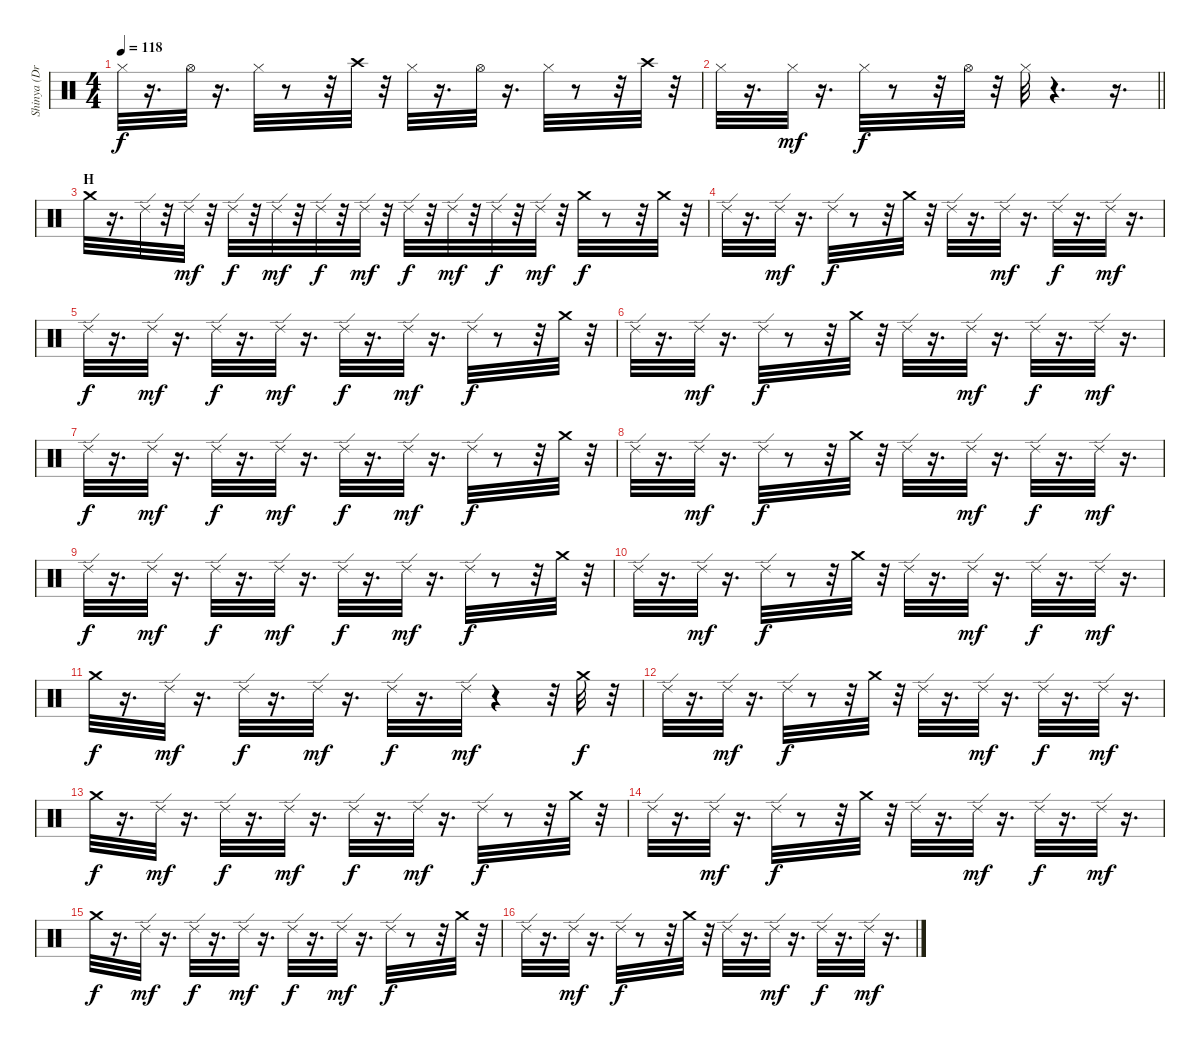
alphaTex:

\track ("Shinya (Drums)" "Shinya (Dr") {instrument percussion}
\staff {score}
\articulation defaults
\ts (4 4)
\tempo 118
\clef neutral
\ks c "Hi-Hat (closed)".32{dy f}
r.16{d} "Hi-Hat (open)".32 r.16{d} "Hi-Hat (closed)".32 r.8 r.32 "Crash high (hit)".32 r.32 "Hi-Hat (closed)".32 r.16{d} "Hi-Hat (open)".32 r.16{d} "Hi-Hat (closed)".32 r.8 r.32 "Crash high (hit)".32 r.32 |
\barLineRight lightlight "Hi-Hat (closed)".32
r.16{d} "Hi-Hat (closed)".32{dy mf} r.16{d} "Hi-Hat (closed)".32{dy f} r.8 r.32 "Hi-Hat (open)".32 r.32 "Hi-Hat (closed)".32 r.4{d} r.16{d} |
\section ("" "H")
"Crash medium (hit)".32 r.16{d} "Ride (edge) 2".32 r.32 "Ride (edge) 2".32{dy mf} r.32 "Ride (edge) 2".32{dy f} r.32 "Ride (edge) 2".32{dy mf} r.32 "Ride (edge) 2".32{dy f} r.32 "Ride (edge) 2".32{dy mf} r.32 "Ride (edge) 2".32{dy f} r.32 "Ride (edge) 2".32{dy mf} r.32 "Ride (edge) 2".32{dy f} r.32 "Ride (edge) 2".32{dy mf} r.32 "Crash medium (hit)".32{dy f} r.8 r.32 "Crash medium (hit)".32 r.32 |
"Ride (edge) 2".32 r.16{d} "Ride (edge) 2".32{dy mf} r.16{d} "Ride (edge) 2".32{dy f} r.8 r.32 "Crash medium (hit)".32 r.32 "Ride (edge) 2".32 r.16{d} "Ride (edge) 2".32{dy mf} r.16{d} "Ride (edge) 2".32{dy f} r.16{d} "Ride (edge) 2".32{dy mf} r.16{d} |
"Ride (edge) 2".32{dy f} r.16{d} "Ride (edge) 2".32{dy mf} r.16{d} "Ride (edge) 2".32{dy f} r.16{d} "Ride (edge) 2".32{dy mf} r.16{d} "Ride (edge) 2".32{dy f} r.16{d} "Ride (edge) 2".32{dy mf} r.16{d} "Ride (edge) 2".32{dy f} r.8 r.32 "Crash medium (hit)".32 r.32 |
"Ride (edge) 2".32 r.16{d} "Ride (edge) 2".32{dy mf} r.16{d} "Ride (edge) 2".32{dy f} r.8 r.32 "Crash medium (hit)".32 r.32 "Ride (edge) 2".32 r.16{d} "Ride (edge) 2".32{dy mf} r.16{d} "Ride (edge) 2".32{dy f} r.16{d} "Ride (edge) 2".32{dy mf} r.16{d} |
"Ride (edge) 2".32{dy f} r.16{d} "Ride (edge) 2".32{dy mf} r.16{d} "Ride (edge) 2".32{dy f} r.16{d} "Ride (edge) 2".32{dy mf} r.16{d} "Ride (edge) 2".32{dy f} r.16{d} "Ride (edge) 2".32{dy mf} r.16{d} "Ride (edge) 2".32{dy f} r.8 r.32 "Crash medium (hit)".32 r.32 |
"Ride (edge) 2".32 r.16{d} "Ride (edge) 2".32{dy mf} r.16{d} "Ride (edge) 2".32{dy f} r.8 r.32 "Crash medium (hit)".32 r.32 "Ride (edge) 2".32 r.16{d} "Ride (edge) 2".32{dy mf} r.16{d} "Ride (edge) 2".32{dy f} r.16{d} "Ride (edge) 2".32{dy mf} r.16{d} |
"Ride (edge) 2".32{dy f} r.16{d} "Ride (edge) 2".32{dy mf} r.16{d} "Ride (edge) 2".32{dy f} r.16{d} "Ride (edge) 2".32{dy mf} r.16{d} "Ride (edge) 2".32{dy f} r.16{d} "Ride (edge) 2".32{dy mf} r.16{d} "Ride (edge) 2".32{dy f} r.8 r.32 "Crash medium (hit)".32 r.32 |
"Ride (edge) 2".32 r.16{d} "Ride (edge) 2".32{dy mf} r.16{d} "Ride (edge) 2".32{dy f} r.8 r.32 "Crash medium (hit)".32 r.32 "Ride (edge) 2".32 r.16{d} "Ride (edge) 2".32{dy mf} r.16{d} "Ride (edge) 2".32{dy f} r.16{d} "Ride (edge) 2".32{dy mf} r.16{d} |
"Crash medium (hit)".32{dy f} r.16{d} "Ride (edge) 2".32{dy mf} r.16{d} "Ride (edge) 2".32{dy f} r.16{d} "Ride (edge) 2".32{dy mf} r.16{d} "Ride (edge) 2".32{dy f} r.16{d} "Ride (edge) 2".32{dy mf} r.4 r.32 "Crash medium (hit)".32{dy f} r.32 |
"Ride (edge) 2".32 r.16{d} "Ride (edge) 2".32{dy mf} r.16{d} "Ride (edge) 2".32{dy f} r.8 r.32 "Crash medium (hit)".32 r.32 "Ride (edge) 2".32 r.16{d} "Ride (edge) 2".32{dy mf} r.16{d} "Ride (edge) 2".32{dy f} r.16{d} "Ride (edge) 2".32{dy mf} r.16{d} |
"Crash medium (hit)".32{dy f} r.16{d} "Ride (edge) 2".32{dy mf} r.16{d} "Ride (edge) 2".32{dy f} r.16{d} "Ride (edge) 2".32{dy mf} r.16{d} "Ride (edge) 2".32{dy f} r.16{d} "Ride (edge) 2".32{dy mf} r.16{d} "Ride (edge) 2".32{dy f} r.8 r.32 "Crash medium (hit)".32 r.32 |
"Ride (edge) 2".32 r.16{d} "Ride (edge) 2".32{dy mf} r.16{d} "Ride (edge) 2".32{dy f} r.8 r.32 "Crash medium (hit)".32 r.32 "Ride (edge) 2".32 r.16{d} "Ride (edge) 2".32{dy mf} r.16{d} "Ride (edge) 2".32{dy f} r.16{d} "Ride (edge) 2".32{dy mf} r.16{d} |
"Crash medium (hit)".32{dy f} r.16{d} "Ride (edge) 2".32{dy mf} r.16{d} "Ride (edge) 2".32{dy f} r.16{d} "Ride (edge) 2".32{dy mf} r.16{d} "Ride (edge) 2".32{dy f} r.16{d} "Ride (edge) 2".32{dy mf} r.16{d} "Ride (edge) 2".32{dy f} r.8 r.32 "Crash medium (hit)".32 r.32 |
"Ride (edge) 2".32 r.16{d} "Ride (edge) 2".32{dy mf} r.16{d} "Ride (edge) 2".32{dy f} r.8 r.32 "Crash medium (hit)".32 r.32 "Ride (edge) 2".32 r.16{d} "Ride (edge) 2".32{dy mf} r.16{d} "Ride (edge) 2".32{dy f} r.16{d} "Ride (edge) 2".32{dy mf} r.16{d}
